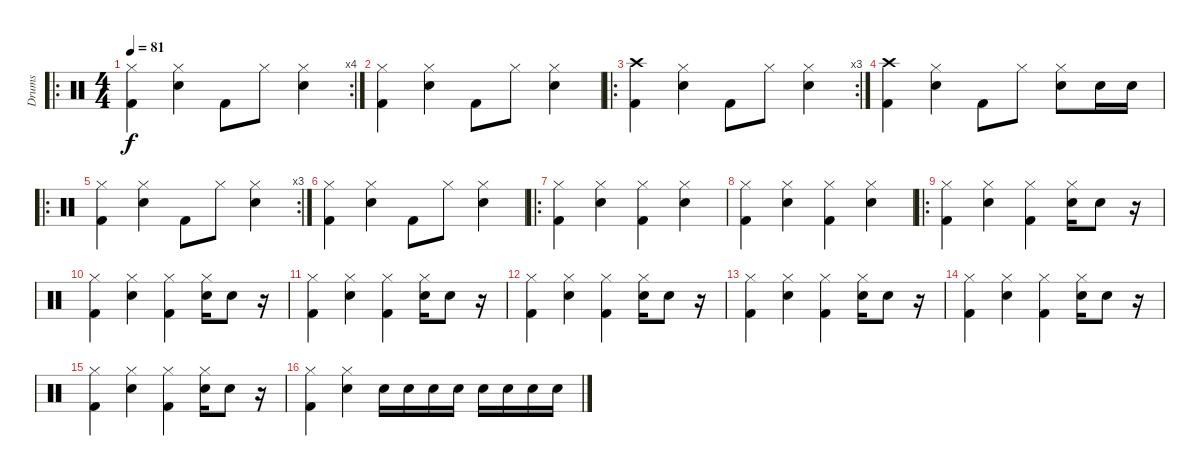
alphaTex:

\track ("Drums" "Drums") {instrument percussion}
\staff {score}
\articulation defaults
\ro
\rc 4
\ts (4 4)
\tempo 81
\clef neutral
\ks c
("Kick (hit) 2" "Hi-Hat (closed)").4{dy f} ("Hi-Hat (closed)" "Electric Snare (hit)").4 "Kick (hit) 2".8 "Hi-Hat (closed)".8 ("Hi-Hat (closed)" "Electric Snare (hit)").4 |
("Kick (hit) 2" "Hi-Hat (closed)").4 ("Hi-Hat (closed)" "Electric Snare (hit)").4 "Kick (hit) 2".8 "Hi-Hat (closed)".8 ("Hi-Hat (closed)" "Electric Snare (hit)").4 |
\ro
\rc 3
("Kick (hit) 2" "Crash high (hit)").4 ("Hi-Hat (closed)" "Electric Snare (hit)").4 "Kick (hit) 2".8 "Hi-Hat (closed)".8 ("Hi-Hat (closed)" "Electric Snare (hit)").4 |
("Kick (hit) 2" "Crash high (hit)").4 ("Hi-Hat (closed)" "Electric Snare (hit)").4 "Kick (hit) 2".8 "Hi-Hat (closed)".8 ("Hi-Hat (closed)" "Electric Snare (hit)").8 "Electric Snare (hit)".16 "Electric Snare (hit)".16 |
\ro
\rc 3
("Kick (hit) 2" "Hi-Hat (closed)").4 ("Hi-Hat (closed)" "Electric Snare (hit)").4 "Kick (hit) 2".8 "Hi-Hat (closed)".8 ("Hi-Hat (closed)" "Electric Snare (hit)").4 |
("Kick (hit) 2" "Hi-Hat (closed)").4 ("Hi-Hat (closed)" "Electric Snare (hit)").4 "Kick (hit) 2".8 "Hi-Hat (closed)".8 ("Hi-Hat (closed)" "Electric Snare (hit)").4 |
\ro
("Hi-Hat (closed)" "Kick (hit) 2").4 ("Hi-Hat (closed)" "Electric Snare (hit)").4 ("Hi-Hat (closed)" "Kick (hit) 2").4 ("Hi-Hat (closed)" "Electric Snare (hit)").4 |
("Hi-Hat (closed)" "Kick (hit) 2").4 ("Hi-Hat (closed)" "Electric Snare (hit)").4 ("Hi-Hat (closed)" "Kick (hit) 2").4 ("Hi-Hat (closed)" "Electric Snare (hit)").4 |
\ro
("Hi-Hat (closed)" "Kick (hit) 2").4 ("Hi-Hat (closed)" "Electric Snare (hit)").4 ("Hi-Hat (closed)" "Kick (hit) 2").4 ("Hi-Hat (closed)" "Electric Snare (hit)").16 "Electric Snare (hit)".8 r.16 |
("Hi-Hat (closed)" "Kick (hit) 2").4 ("Hi-Hat (closed)" "Electric Snare (hit)").4 ("Hi-Hat (closed)" "Kick (hit) 2").4 ("Hi-Hat (closed)" "Electric Snare (hit)").16 "Electric Snare (hit)".8 r.16 |
("Hi-Hat (closed)" "Kick (hit) 2").4 ("Hi-Hat (closed)" "Electric Snare (hit)").4 ("Hi-Hat (closed)" "Kick (hit) 2").4 ("Hi-Hat (closed)" "Electric Snare (hit)").16 "Electric Snare (hit)".8 r.16 |
("Hi-Hat (closed)" "Kick (hit) 2").4 ("Hi-Hat (closed)" "Electric Snare (hit)").4 ("Hi-Hat (closed)" "Kick (hit) 2").4 ("Hi-Hat (closed)" "Electric Snare (hit)").16 "Electric Snare (hit)".8 r.16 |
("Hi-Hat (closed)" "Kick (hit) 2").4 ("Hi-Hat (closed)" "Electric Snare (hit)").4 ("Hi-Hat (closed)" "Kick (hit) 2").4 ("Hi-Hat (closed)" "Electric Snare (hit)").16 "Electric Snare (hit)".8 r.16 |
("Hi-Hat (closed)" "Kick (hit) 2").4 ("Hi-Hat (closed)" "Electric Snare (hit)").4 ("Hi-Hat (closed)" "Kick (hit) 2").4 ("Hi-Hat (closed)" "Electric Snare (hit)").16 "Electric Snare (hit)".8 r.16 |
("Hi-Hat (closed)" "Kick (hit) 2").4 ("Hi-Hat (closed)" "Electric Snare (hit)").4 ("Hi-Hat (closed)" "Kick (hit) 2").4 ("Hi-Hat (closed)" "Electric Snare (hit)").16 "Electric Snare (hit)".8 r.16 |
("Hi-Hat (closed)" "Kick (hit) 2").4 ("Hi-Hat (closed)" "Electric Snare (hit)").4 "Electric Snare (hit)".16 "Electric Snare (hit)".16 "Electric Snare (hit)".16 "Electric Snare (hit)".16 "Electric Snare (hit)".16 "Electric Snare (hit)".16 "Electric Snare (hit)".16 "Electric Snare (hit)".16
